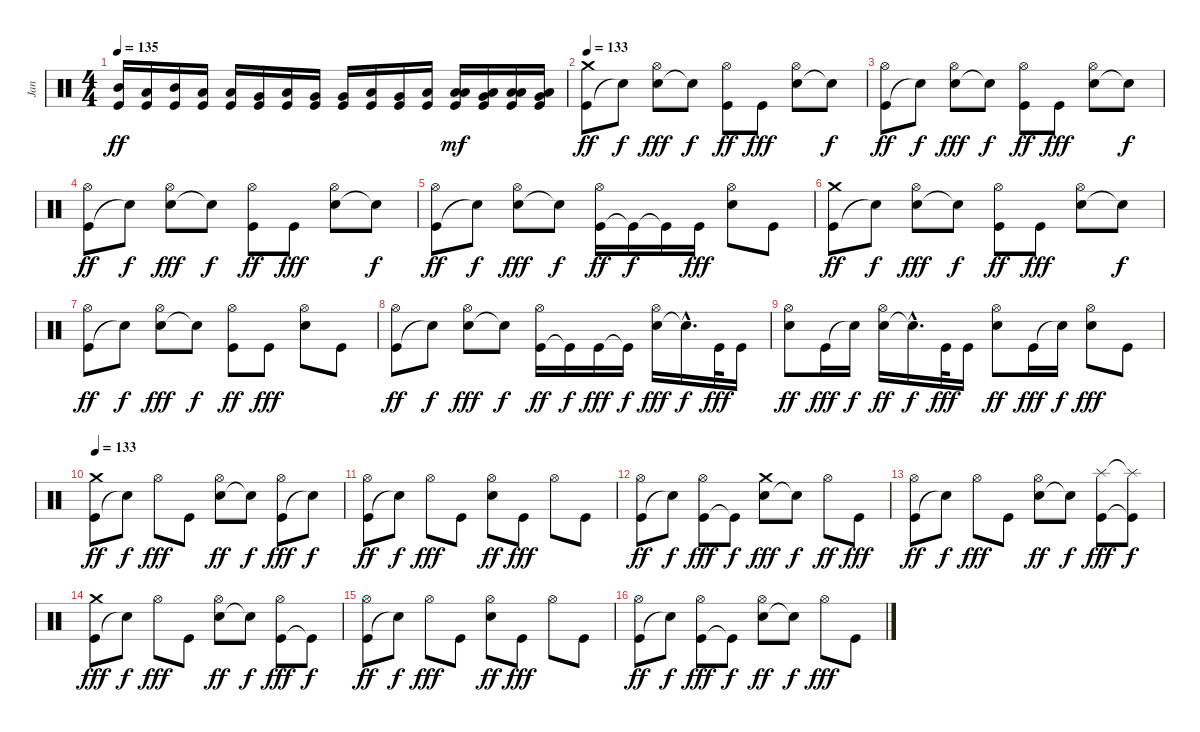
\track ("Jan" "Jan") {instrument percussion}
\staff {score}
\articulation defaults
\ts (4 4)
\tempo 135
\clef neutral
\ks c
("Kick (hit)" "Mid Tom (hit)").16{dy ff} ("Kick (hit)" "Low Tom (hit)").16 ("Kick (hit)" "Mid Tom (hit)").16 ("Kick (hit)" "Low Tom (hit)").16 ("Kick (hit)" "Low Tom (hit)").16 ("Kick (hit)" "Very Low Tom (hit)").16 ("Kick (hit)" "Low Tom (hit)").16 ("Kick (hit)" "Very Low Tom (hit)").16 ("Kick (hit)" "Very Low Tom (hit)").16 ("Kick (hit)" "Low Floor Tom (hit)").16 ("Kick (hit)" "Very Low Tom (hit)").16 ("Kick (hit)" "Low Floor Tom (hit)").16 ("Kick (hit)" "Low Floor Tom (hit)" "Low Tom (hit)").16{dy mf} ("Kick (hit)" "Very Low Tom (hit)" "Low Tom (hit)").16 ("Kick (hit)" "Low Floor Tom (hit)" "Low Tom (hit)").16 ("Kick (hit)" "Very Low Tom (hit)" "Low Tom (hit)").16 |
\tempo 133
("Kick (hit)" "Crash medium (hit)").8{dy ff} "Snare (hit)"{t}.8{dy f} ("Snare (hit) 2" "Hi-Hat (open)").8{dy fff} "Snare (hit)"{t}.8{dy f} ("Kick (hit)" "Hi-Hat (open)").8{dy ff} "Kick (hit)".8{dy fff} ("Snare (hit) 2" "Hi-Hat (open)").8 "Snare (hit)"{t}.8{dy f} |
("Kick (hit)" "Hi-Hat (open)").8{dy ff} "Snare (hit)"{t}.8{dy f} ("Snare (hit) 2" "Hi-Hat (open)").8{dy fff} "Snare (hit)"{t}.8{dy f} ("Kick (hit)" "Hi-Hat (open)").8{dy ff} "Kick (hit)".8{dy fff} ("Snare (hit) 2" "Hi-Hat (open)").8 "Snare (hit)"{t}.8{dy f} |
("Kick (hit)" "Hi-Hat (open)").8{dy ff} "Snare (hit)"{t}.8{dy f} ("Snare (hit) 2" "Hi-Hat (open)").8{dy fff} "Snare (hit)"{t}.8{dy f} ("Kick (hit)" "Hi-Hat (open)").8{dy ff} "Kick (hit)".8{dy fff} ("Snare (hit) 2" "Hi-Hat (open)").8 "Snare (hit)"{t}.8{dy f} |
("Kick (hit)" "Hi-Hat (open)").8{dy ff} "Snare (hit)"{t}.8{dy f} ("Snare (hit) 2" "Hi-Hat (open)").8{dy fff} "Snare (hit)"{t}.8{dy f} ("Kick (hit)" "Hi-Hat (open)").16{dy ff} "Kick (hit)"{t}.16{dy f} "Kick (hit)"{t}.16 "Kick (hit)".16{dy fff} ("Snare (hit) 2" "Hi-Hat (open)").8 "Kick (hit)".8 |
("Kick (hit)" "Crash medium (hit)").8{dy ff} "Snare (hit)"{t}.8{dy f} ("Snare (hit) 2" "Hi-Hat (open)").8{dy fff} "Snare (hit)"{t}.8{dy f} ("Kick (hit)" "Hi-Hat (open)").8{dy ff} "Kick (hit)".8{dy fff} ("Snare (hit) 2" "Hi-Hat (open)").8 "Snare (hit)"{t}.8{dy f} |
("Kick (hit)" "Hi-Hat (open)").8{dy ff} "Snare (hit)"{t}.8{dy f} ("Snare (hit) 2" "Hi-Hat (open)").8{dy fff} "Snare (hit)"{t}.8{dy f} ("Kick (hit)" "Hi-Hat (open)").8{dy ff} "Kick (hit)".8{dy fff} ("Snare (hit) 2" "Hi-Hat (open)").8 "Kick (hit)".8 |
("Kick (hit)" "Hi-Hat (open)").8{dy ff} "Snare (hit)"{t}.8{dy f} ("Snare (hit) 2" "Hi-Hat (open)").8{dy fff} "Snare (hit)"{t}.8{dy f} ("Kick (hit)" "Hi-Hat (open)").16{dy ff} "Kick (hit)"{t}.16{dy f} "Kick (hit)".16{dy fff} "Kick (hit)"{t}.16{dy f} ("Snare (hit) 2" "Hi-Hat (open)").16{dy fff} "Snare (hit)"{hac t}.16{d dy f} "Kick (hit)".32{dy fff} "Kick (hit)".16 |
("Snare (hit) 2" "Hi-Hat (open)").8{dy ff} "Kick (hit)".16{dy fff} "Snare (hit)"{t}.16{dy f} ("Snare (hit) 2" "Hi-Hat (open)").16{dy ff} "Snare (hit)"{hac t}.16{d dy f} "Kick (hit)".32{dy fff} "Kick (hit)".16 ("Snare (hit) 2" "Hi-Hat (open)").8{dy ff} "Kick (hit)".16{dy fff} "Snare (hit)"{t}.16{dy f} ("Snare (hit) 2" "Hi-Hat (open)").8{dy fff} "Kick (hit)".8 |
\tempo 133
("Kick (hit)" "Crash medium (hit)").8{dy ff} "Snare (hit)"{t}.8{dy f} "Hi-Hat (open)".8{dy fff} "Kick (hit)".8 ("Snare (hit) 2" "Hi-Hat (open)").8{dy ff} "Snare (hit)"{t}.8{dy f} ("Kick (hit)" "Hi-Hat (open)").8{dy fff} "Snare (hit)"{t}.8{dy f} |
("Kick (hit)" "Hi-Hat (open)").8{dy ff} "Snare (hit)"{t}.8{dy f} "Hi-Hat (open)".8{dy fff} "Kick (hit)".8 ("Snare (hit) 2" "Hi-Hat (open)").8{dy ff} "Kick (hit)".8{dy fff} "Hi-Hat (open)".8 "Kick (hit)".8 |
("Kick (hit)" "Hi-Hat (open)").8{dy ff} "Snare (hit)"{t}.8{dy f} ("Kick (hit)" "Hi-Hat (open)").8{dy fff} "Kick (hit)"{t}.8{dy f} ("Snare (hit) 2" "Crash medium (hit)").8{dy fff} "Snare (hit)"{t}.8{dy f} "Hi-Hat (open)".8{dy ff} "Kick (hit)".8{dy fff} |
("Kick (hit)" "Hi-Hat (open)").8{dy ff} "Snare (hit)"{t}.8{dy f} "Hi-Hat (open)".8{dy fff} "Kick (hit)".8 ("Snare (hit) 2" "Hi-Hat (open)").8{dy ff} "Snare (hit)"{t}.8{dy f} ("Kick (hit)" "Splash (hit)").8{dy fff} ("Kick (hit)"{t} "Splash (hit)"{t}).8{dy f} |
("Kick (hit)" "Crash medium (hit)").8{dy fff} "Snare (hit)"{t}.8{dy f} "Hi-Hat (open)".8{dy fff} "Kick (hit)".8 ("Snare (hit) 2" "Hi-Hat (open)").8{dy ff} "Snare (hit)"{t}.8{dy f} ("Kick (hit)" "Hi-Hat (open)").8{dy fff} "Kick (hit)"{t}.8{dy f} |
("Kick (hit)" "Hi-Hat (open)").8{dy ff} "Snare (hit)"{t}.8{dy f} "Hi-Hat (open)".8{dy fff} "Kick (hit)".8 ("Snare (hit) 2" "Hi-Hat (open)").8{dy ff} "Kick (hit)".8{dy fff} "Hi-Hat (open)".8 "Kick (hit)".8 |
("Kick (hit)" "Hi-Hat (open)").8{dy ff} "Snare (hit)"{t}.8{dy f} ("Kick (hit)" "Hi-Hat (open)").8{dy fff} "Kick (hit)"{t}.8{dy f} ("Snare (hit) 2" "Hi-Hat (open)").8{dy ff} "Snare (hit)"{t}.8{dy f} "Hi-Hat (open)".8{dy fff} "Kick (hit)".8
